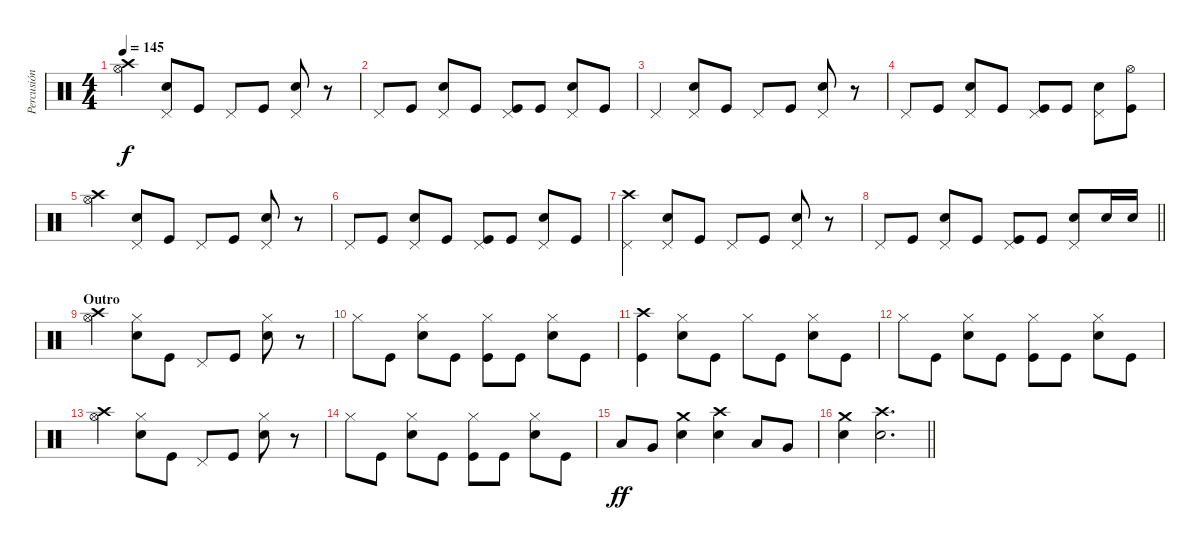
\track ("Percusión" "Percusión") {instrument percussion}
\staff {score}
\articulation defaults
\ts (4 4)
\tempo 145
\clef neutral
\ks c
("Crash high (hit)" "Hi-Hat (open)").4{dy f} ("Pedal Hi-Hat (hit)" "Snare (hit) 2").8 "Kick (hit)".8 "Pedal Hi-Hat (hit)".8 "Kick (hit)".8 ("Pedal Hi-Hat (hit)" "Snare (hit) 2").8 r.8 |
"Pedal Hi-Hat (hit)".8 "Kick (hit)".8 ("Pedal Hi-Hat (hit)" "Snare (hit) 2").8 "Kick (hit)".8 ("Pedal Hi-Hat (hit)" "Kick (hit)").8 "Kick (hit)".8 ("Pedal Hi-Hat (hit)" "Snare (hit) 2").8 "Kick (hit)".8 |
"Pedal Hi-Hat (hit)".4 ("Pedal Hi-Hat (hit)" "Snare (hit) 2").8 "Kick (hit)".8 "Pedal Hi-Hat (hit)".8 "Kick (hit)".8 ("Pedal Hi-Hat (hit)" "Snare (hit) 2").8 r.8 |
"Pedal Hi-Hat (hit)".8 "Kick (hit)".8 ("Pedal Hi-Hat (hit)" "Snare (hit) 2").8 "Kick (hit)".8 ("Pedal Hi-Hat (hit)" "Kick (hit)").8 "Kick (hit)".8 ("Pedal Hi-Hat (hit)" "Snare (hit) 2").8 ("Hi-Hat (open)" "Kick (hit)").8 |
("Crash high (hit)" "Hi-Hat (open)").4 ("Pedal Hi-Hat (hit)" "Snare (hit) 2").8 "Kick (hit)".8 "Pedal Hi-Hat (hit)".8 "Kick (hit)".8 ("Pedal Hi-Hat (hit)" "Snare (hit) 2").8 r.8 |
"Pedal Hi-Hat (hit)".8 "Kick (hit)".8 ("Pedal Hi-Hat (hit)" "Snare (hit) 2").8 "Kick (hit)".8 ("Pedal Hi-Hat (hit)" "Kick (hit)").8 "Kick (hit)".8 ("Pedal Hi-Hat (hit)" "Snare (hit) 2").8 "Kick (hit)".8 |
("Crash high (hit)" "Pedal Hi-Hat (hit)").4 ("Pedal Hi-Hat (hit)" "Snare (hit) 2").8 "Kick (hit)".8 "Pedal Hi-Hat (hit)".8 "Kick (hit)".8 ("Pedal Hi-Hat (hit)" "Snare (hit) 2").8 r.8 |
\barLineRight lightlight "Pedal Hi-Hat (hit)".8 "Kick (hit)".8
("Pedal Hi-Hat (hit)" "Snare (hit) 2").8 "Kick (hit)".8 ("Pedal Hi-Hat (hit)" "Kick (hit)").8 "Kick (hit)".8 ("Pedal Hi-Hat (hit)" "Snare (hit) 2").8 "Snare (hit) 2".16 "Snare (hit) 2".16 |
\section ("" "Outro")
("Crash high (hit)" "Hi-Hat (open)").4 ("Hi-Hat (closed)" "Snare (hit) 2").8 "Kick (hit)".8 "Pedal Hi-Hat (hit)".8 "Kick (hit)".8 ("Hi-Hat (closed)" "Snare (hit) 2").8 r.8 |
"Hi-Hat (closed)".8 "Kick (hit)".8 ("Hi-Hat (closed)" "Snare (hit) 2").8 "Kick (hit)".8 ("Hi-Hat (closed)" "Kick (hit)").8 "Kick (hit)".8 ("Hi-Hat (closed)" "Snare (hit) 2").8 "Kick (hit)".8 |
("Crash high (hit)" "Kick (hit)").4 ("Hi-Hat (closed)" "Snare (hit) 2").8 "Kick (hit)".8 "Hi-Hat (closed)".8 "Kick (hit)".8 ("Hi-Hat (closed)" "Snare (hit) 2").8 "Kick (hit)".8 |
"Hi-Hat (closed)".8 "Kick (hit)".8 ("Hi-Hat (closed)" "Snare (hit) 2").8 "Kick (hit)".8 ("Hi-Hat (closed)" "Kick (hit)").8 "Kick (hit)".8 ("Hi-Hat (closed)" "Snare (hit) 2").8 "Kick (hit)".8 |
("Crash high (hit)" "Hi-Hat (open)").4 ("Hi-Hat (closed)" "Snare (hit) 2").8 "Kick (hit)".8 "Pedal Hi-Hat (hit)".8 "Kick (hit)".8 ("Hi-Hat (closed)" "Snare (hit) 2").8 r.8 |
"Hi-Hat (closed)".8 "Kick (hit)".8 ("Hi-Hat (closed)" "Snare (hit) 2").8 "Kick (hit)".8 ("Hi-Hat (closed)" "Kick (hit)").8 "Kick (hit)".8 ("Hi-Hat (closed)" "Snare (hit) 2").8 "Kick (hit)".8 |
"Low Tom (hit)".8{dy ff} "Very Low Tom (hit)".8 ("Crash medium (hit)" "Snare (hit) 2").4 ("Crash high (hit)" "Snare (hit) 2").4 "Low Tom (hit)".8 "Very Low Tom (hit)".8 |
\barLineRight lightlight
("Crash medium (hit)" "Snare (hit) 2").4 ("Crash high (hit)" "Snare (hit) 2").2{d}
